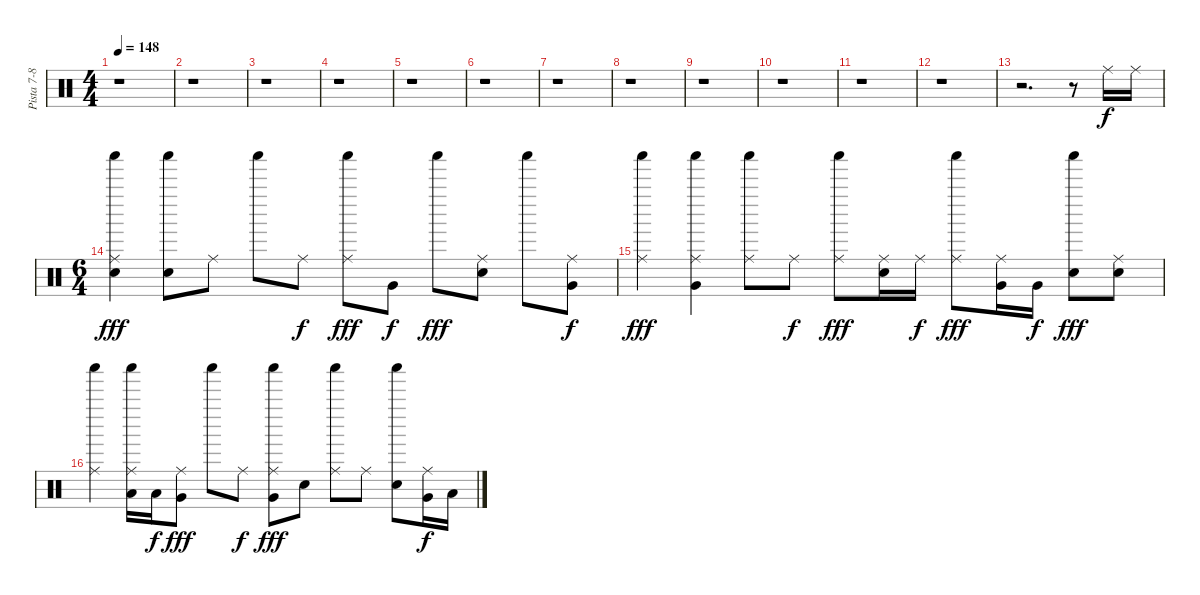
\track ("Pista 7-8" "Pista 7-8") {instrument percussion}
\staff {score}
\articulation defaults
\ts (4 4)
\tempo 148
\clef neutral
\ks c
r.1{dy mp} |
r.1 |
r.1 |
r.1 |
r.1 |
r.1 |
r.1 |
r.1 |
r.1 |
r.1 |
r.1 |
r.1 |
r.2{d} r.8 "Ride (middle)".16{dy f} "Ride (middle)".16 |
\ts (6 4)
("Shaker (hit)" "Electric Snare (hit)" "Ride (middle)").4{dy fff} ("Shaker (hit)" "Electric Snare (hit)").8 "Ride (middle)".8 "Shaker (hit)".8 "Ride (middle)".8{dy f} ("Shaker (hit)" "Ride (middle)").8{dy fff} "Very Low Tom (hit)".8{dy f} "Shaker (hit)".8{dy fff} ("Electric Snare (hit)" "Ride (middle)").8 "Shaker (hit)".8 ("Very Low Tom (hit)" "Ride (middle)").8{dy f} |
("Shaker (hit)" "Ride (middle)").4{dy fff} ("Shaker (hit)" "Very Low Tom (hit)" "Ride (middle)").4 ("Shaker (hit)" "Ride (middle)").8 "Ride (middle)".8{dy f} ("Shaker (hit)" "Ride (middle)").8{dy fff} ("Electric Snare (hit)" "Ride (middle)").16 "Ride (middle)".16{dy f} ("Shaker (hit)" "Ride (middle)").8{dy fff} ("Very Low Tom (hit)" "Ride (middle)").16 "Very Low Tom (hit)".16{dy f} ("Shaker (hit)" "Electric Snare (hit)").8{dy fff} ("Electric Snare (hit)" "Ride (middle)").8 |
("Shaker (hit)" "Ride (middle)").4 ("Shaker (hit)" "Low Tom (hit)" "Ride (middle)").16 "Low Tom (hit)".16{dy f} ("Very Low Tom (hit)" "Ride (middle)").8{dy fff} "Shaker (hit)".8 "Ride (middle)".8{dy f} ("Shaker (hit)" "Very Low Tom (hit)" "Ride (middle)").8{dy fff} "Electric Snare (hit)".8 ("Shaker (hit)" "Ride (middle)").8 "Ride (middle)".8 ("Shaker (hit)" "Electric Snare (hit)").8 ("Very Low Tom (hit)" "Ride (middle)").16{dy f} "Low Tom (hit)".16
